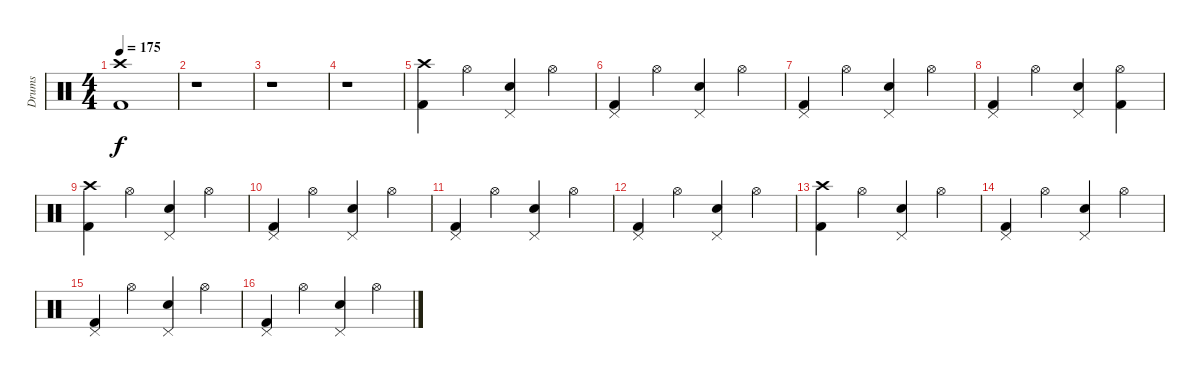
\track ("Drums" "Drums") {instrument percussion}
\staff {score}
\articulation defaults
\ts (4 4)
\tempo 175
\clef neutral
\ks c
("Crash high (hit)" "Kick (hit) 2").1{dy f} |
r.1 |
r.1 |
r.1 |
("Crash high (hit)" "Kick (hit) 2").4 "Hi-Hat (open)".4 ("Pedal Hi-Hat (hit)" "Electric Snare (hit)").4 "Hi-Hat (open)".4 |
("Pedal Hi-Hat (hit)" "Kick (hit) 2").4 "Hi-Hat (open)".4 ("Pedal Hi-Hat (hit)" "Electric Snare (hit)").4 "Hi-Hat (open)".4 |
("Pedal Hi-Hat (hit)" "Kick (hit) 2").4 "Hi-Hat (open)".4 ("Pedal Hi-Hat (hit)" "Electric Snare (hit)").4 "Hi-Hat (open)".4 |
("Pedal Hi-Hat (hit)" "Kick (hit) 2").4 "Hi-Hat (open)".4 ("Pedal Hi-Hat (hit)" "Electric Snare (hit)").4 ("Hi-Hat (open)" "Kick (hit) 2").4 |
("Crash high (hit)" "Kick (hit) 2").4 "Hi-Hat (open)".4 ("Pedal Hi-Hat (hit)" "Electric Snare (hit)").4 "Hi-Hat (open)".4 |
("Pedal Hi-Hat (hit)" "Kick (hit) 2").4 "Hi-Hat (open)".4 ("Pedal Hi-Hat (hit)" "Electric Snare (hit)").4 "Hi-Hat (open)".4 |
("Pedal Hi-Hat (hit)" "Kick (hit) 2").4 "Hi-Hat (open)".4 ("Pedal Hi-Hat (hit)" "Electric Snare (hit)").4 "Hi-Hat (open)".4 |
("Pedal Hi-Hat (hit)" "Kick (hit) 2").4 "Hi-Hat (open)".4 ("Pedal Hi-Hat (hit)" "Electric Snare (hit)").4 "Hi-Hat (open)".4 |
("Crash high (hit)" "Kick (hit) 2").4 "Hi-Hat (open)".4 ("Pedal Hi-Hat (hit)" "Electric Snare (hit)").4 "Hi-Hat (open)".4 |
("Pedal Hi-Hat (hit)" "Kick (hit) 2").4 "Hi-Hat (open)".4 ("Pedal Hi-Hat (hit)" "Electric Snare (hit)").4 "Hi-Hat (open)".4 |
("Pedal Hi-Hat (hit)" "Kick (hit) 2").4 "Hi-Hat (open)".4 ("Pedal Hi-Hat (hit)" "Electric Snare (hit)").4 "Hi-Hat (open)".4 |
("Pedal Hi-Hat (hit)" "Kick (hit) 2").4 "Hi-Hat (open)".4 ("Pedal Hi-Hat (hit)" "Electric Snare (hit)").4 "Hi-Hat (open)".4
